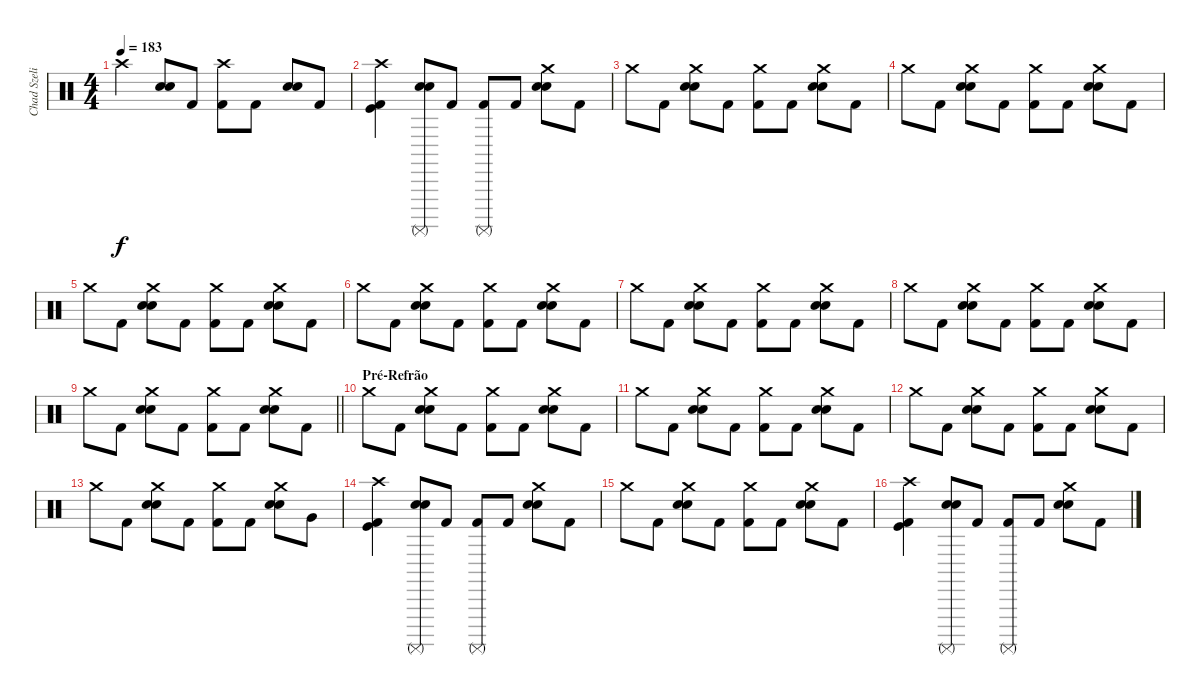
\track ("Chad Szeliga" "Chad Szeli") {instrument percussion}
\staff {score}
\articulation defaults
\ts (4 4)
\tempo 183
\clef neutral
\ks c "Crash high (hit)".4{dy f}
("Snare (hit) 2" "Snare (hit) 2").8 "Kick (hit) 2".8 ("Crash high (hit)" "Kick (hit) 2").8 "Kick (hit) 2".8 ("Snare (hit) 2" "Snare (hit) 2").8 "Kick (hit) 2".8 |
("Crash high (hit)" "Kick (hit) 2" "Kick (hit)").4 ("Surdo (mute)" "Snare (hit) 2" "Snare (hit) 2").8 "Kick (hit) 2".8 ("Surdo (mute)" "Kick (hit) 2").8 "Kick (hit) 2".8 ("Crash medium (hit)" "Snare (hit) 2" "Snare (hit) 2").8 "Kick (hit) 2".8 |
"Crash medium (hit)".8 "Kick (hit) 2".8 ("Crash medium (hit)" "Snare (hit) 2" "Snare (hit) 2").8 "Kick (hit) 2".8 ("Crash medium (hit)" "Kick (hit) 2").8 "Kick (hit) 2".8 ("Crash medium (hit)" "Snare (hit) 2" "Snare (hit) 2").8 "Kick (hit) 2".8 |
"Crash medium (hit)".8 "Kick (hit) 2".8 ("Crash medium (hit)" "Snare (hit) 2" "Snare (hit) 2").8 "Kick (hit) 2".8 ("Crash medium (hit)" "Kick (hit) 2").8 "Kick (hit) 2".8 ("Crash medium (hit)" "Snare (hit) 2" "Snare (hit) 2").8 "Kick (hit) 2".8 |
"Crash medium (hit)".8 "Kick (hit) 2".8 ("Crash medium (hit)" "Snare (hit) 2" "Snare (hit) 2").8 "Kick (hit) 2".8 ("Crash medium (hit)" "Kick (hit) 2").8 "Kick (hit) 2".8 ("Crash medium (hit)" "Snare (hit) 2" "Snare (hit) 2").8 "Kick (hit) 2".8 |
"Crash medium (hit)".8 "Kick (hit) 2".8 ("Crash medium (hit)" "Snare (hit) 2" "Snare (hit) 2").8 "Kick (hit) 2".8 ("Crash medium (hit)" "Kick (hit) 2").8 "Kick (hit) 2".8 ("Crash medium (hit)" "Snare (hit) 2" "Snare (hit) 2").8 "Kick (hit) 2".8 |
"Crash medium (hit)".8 "Kick (hit) 2".8 ("Crash medium (hit)" "Snare (hit) 2" "Snare (hit) 2").8 "Kick (hit) 2".8 ("Crash medium (hit)" "Kick (hit) 2").8 "Kick (hit) 2".8 ("Crash medium (hit)" "Snare (hit) 2" "Snare (hit) 2").8 "Kick (hit) 2".8 |
"Crash medium (hit)".8 "Kick (hit) 2".8 ("Crash medium (hit)" "Snare (hit) 2" "Snare (hit) 2").8 "Kick (hit) 2".8 ("Crash medium (hit)" "Kick (hit) 2").8 "Kick (hit) 2".8 ("Crash medium (hit)" "Snare (hit) 2" "Snare (hit) 2").8 "Kick (hit) 2".8 |
\barLineRight lightlight "Crash medium (hit)".8 "Kick (hit) 2".8
("Crash medium (hit)" "Snare (hit) 2" "Snare (hit) 2").8 "Kick (hit) 2".8 ("Crash medium (hit)" "Kick (hit) 2").8 "Kick (hit) 2".8 ("Crash medium (hit)" "Snare (hit) 2" "Snare (hit) 2").8 "Kick (hit) 2".8 |
\section ("" "Pré-Refrão")
"Crash medium (hit)".8 "Kick (hit) 2".8 ("Crash medium (hit)" "Snare (hit) 2" "Snare (hit) 2").8 "Kick (hit) 2".8 ("Crash medium (hit)" "Kick (hit) 2").8 "Kick (hit) 2".8 ("Crash medium (hit)" "Snare (hit) 2" "Snare (hit) 2").8 "Kick (hit) 2".8 |
"Crash medium (hit)".8 "Kick (hit) 2".8 ("Crash medium (hit)" "Snare (hit) 2" "Snare (hit) 2").8 "Kick (hit) 2".8 ("Crash medium (hit)" "Kick (hit) 2").8 "Kick (hit) 2".8 ("Crash medium (hit)" "Snare (hit) 2" "Snare (hit) 2").8 "Kick (hit) 2".8 |
"Crash medium (hit)".8 "Kick (hit) 2".8 ("Crash medium (hit)" "Snare (hit) 2" "Snare (hit) 2").8 "Kick (hit) 2".8 ("Crash medium (hit)" "Kick (hit) 2").8 "Kick (hit) 2".8 ("Crash medium (hit)" "Snare (hit) 2" "Snare (hit) 2").8 "Kick (hit) 2".8 |
"Crash medium (hit)".8 "Kick (hit) 2".8 ("Crash medium (hit)" "Snare (hit) 2" "Snare (hit) 2").8 "Kick (hit) 2".8 ("Crash medium (hit)" "Kick (hit) 2").8 "Kick (hit) 2".8 ("Crash medium (hit)" "Snare (hit) 2" "Snare (hit) 2").8 "Very Low Tom (hit)".8 |
("Crash high (hit)" "Kick (hit) 2" "Kick (hit)").4 ("Surdo (mute)" "Snare (hit) 2" "Snare (hit) 2").8 "Kick (hit) 2".8 ("Surdo (mute)" "Kick (hit) 2").8 "Kick (hit) 2".8 ("Crash medium (hit)" "Snare (hit) 2" "Snare (hit) 2").8 "Kick (hit) 2".8 |
"Crash medium (hit)".8 "Kick (hit) 2".8 ("Crash medium (hit)" "Snare (hit) 2" "Snare (hit) 2").8 "Kick (hit) 2".8 ("Crash medium (hit)" "Kick (hit) 2").8 "Kick (hit) 2".8 ("Crash medium (hit)" "Snare (hit) 2" "Snare (hit) 2").8 "Kick (hit) 2".8 |
("Crash high (hit)" "Kick (hit) 2" "Kick (hit)").4 ("Surdo (mute)" "Snare (hit) 2" "Snare (hit) 2").8 "Kick (hit) 2".8 ("Surdo (mute)" "Kick (hit) 2").8 "Kick (hit) 2".8 ("Crash medium (hit)" "Snare (hit) 2" "Snare (hit) 2").8 "Kick (hit) 2".8
